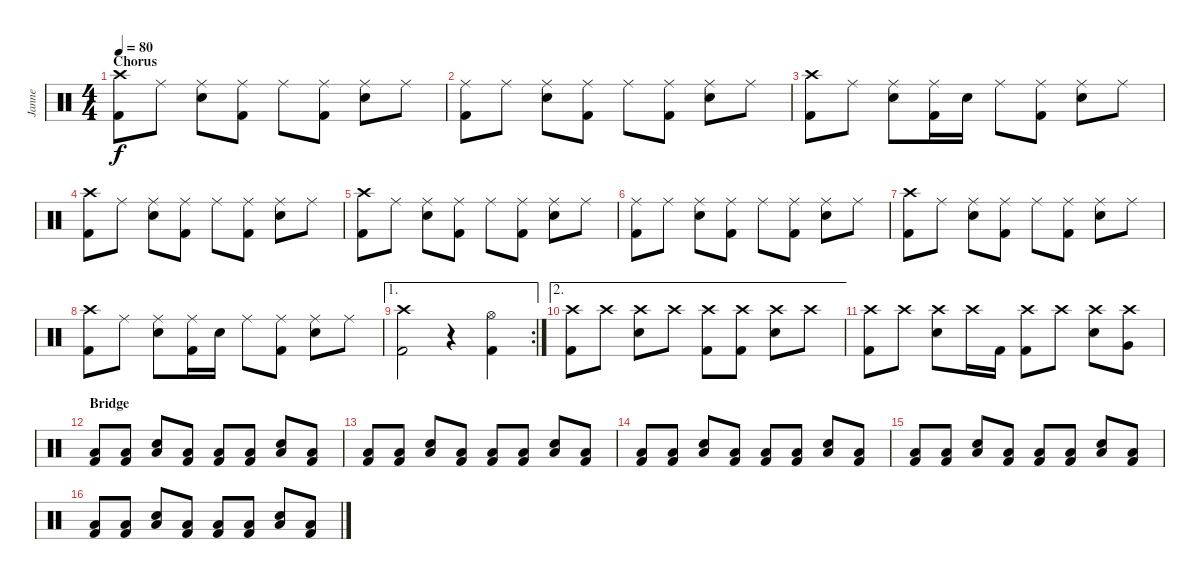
\track ("Janne" "Janne") {instrument percussion}
\staff {score}
\articulation defaults
\ts (4 4)
\section ("" "Chorus")
\tempo 80
\clef neutral
\ks c
("Crash high (hit)" "Kick (hit) 2").8{dy f} "Ride (middle)".8 ("Ride (middle)" "Electric Snare (hit)").8 ("Ride (middle)" "Kick (hit) 2").8 "Ride (middle)".8 ("Ride (middle)" "Kick (hit) 2").8 ("Ride (middle)" "Electric Snare (hit)").8 "Ride (middle)".8 |
("Ride (middle)" "Kick (hit) 2").8 "Ride (middle)".8 ("Ride (middle)" "Electric Snare (hit)").8 ("Ride (middle)" "Kick (hit) 2").8 "Ride (middle)".8 ("Ride (middle)" "Kick (hit) 2").8 ("Ride (middle)" "Electric Snare (hit)").8 "Ride (middle)".8 |
("Crash high (hit)" "Kick (hit) 2").8 "Ride (middle)".8 ("Ride (middle)" "Electric Snare (hit)").8 ("Ride (middle)" "Kick (hit) 2").16 "Electric Snare (hit)".16 "Ride (middle)".8 ("Ride (middle)" "Kick (hit) 2").8 ("Ride (middle)" "Electric Snare (hit)").8 "Ride (middle)".8 |
("Crash high (hit)" "Kick (hit) 2").8 "Ride (middle)".8 ("Ride (middle)" "Electric Snare (hit)").8 ("Ride (middle)" "Kick (hit) 2").8 "Ride (middle)".8 ("Ride (middle)" "Kick (hit) 2").8 ("Ride (middle)" "Electric Snare (hit)").8 "Ride (middle)".8 |
("Crash high (hit)" "Kick (hit) 2").8 "Ride (middle)".8 ("Ride (middle)" "Electric Snare (hit)").8 ("Ride (middle)" "Kick (hit) 2").8 "Ride (middle)".8 ("Ride (middle)" "Kick (hit) 2").8 ("Ride (middle)" "Electric Snare (hit)").8 "Ride (middle)".8 |
("Ride (middle)" "Kick (hit) 2").8 "Ride (middle)".8 ("Ride (middle)" "Electric Snare (hit)").8 ("Ride (middle)" "Kick (hit) 2").8 "Ride (middle)".8 ("Ride (middle)" "Kick (hit) 2").8 ("Ride (middle)" "Electric Snare (hit)").8 "Ride (middle)".8 |
("Crash high (hit)" "Kick (hit) 2").8 "Ride (middle)".8 ("Ride (middle)" "Electric Snare (hit)").8 ("Ride (middle)" "Kick (hit) 2").8 "Ride (middle)".8 ("Ride (middle)" "Kick (hit) 2").8 ("Ride (middle)" "Electric Snare (hit)").8 "Ride (middle)".8 |
("Crash high (hit)" "Kick (hit) 2").8 "Ride (middle)".8 ("Ride (middle)" "Electric Snare (hit)").8 ("Ride (middle)" "Kick (hit) 2").16 "Electric Snare (hit)".16 "Ride (middle)".8 ("Ride (middle)" "Kick (hit) 2").8 ("Ride (middle)" "Electric Snare (hit)").8 "Ride (middle)".8 |
\ae 1
\rc 2
("Crash high (hit)" "Kick (hit) 2").2 r.4 ("Hi-Hat (open)" "Kick (hit) 2").4 |
\ae 2
("Crash high (hit)" "Kick (hit) 2").8 "Crash high (hit)".8 ("Crash high (hit)" "Electric Snare (hit)").8 "Crash high (hit)".8 ("Crash high (hit)" "Kick (hit) 2").8 ("Crash high (hit)" "Kick (hit) 2").8 ("Crash high (hit)" "Electric Snare (hit)").8 "Crash high (hit)".8 |
("Crash high (hit)" "Kick (hit) 2").8 "Crash high (hit)".8 ("Crash high (hit)" "Electric Snare (hit)").8 "Crash high (hit)".16 "Kick (hit) 2".16 ("Crash high (hit)" "Kick (hit) 2").8 "Crash high (hit)".8 ("Crash high (hit)" "Electric Snare (hit)").8 ("Crash high (hit)" "Very Low Tom (hit)").8 |
\section ("" "Bridge")
("Low Floor Tom (hit)" "Kick (hit) 2").8 ("Low Floor Tom (hit)" "Kick (hit) 2").8 ("Low Floor Tom (hit)" "Electric Snare (hit)").8 ("Low Floor Tom (hit)" "Kick (hit) 2").8 ("Low Floor Tom (hit)" "Kick (hit) 2").8 ("Low Floor Tom (hit)" "Kick (hit) 2").8 ("Low Floor Tom (hit)" "Electric Snare (hit)").8 ("Low Floor Tom (hit)" "Kick (hit) 2").8 |
("Low Floor Tom (hit)" "Kick (hit) 2").8 ("Low Floor Tom (hit)" "Kick (hit) 2").8 ("Low Floor Tom (hit)" "Electric Snare (hit)").8 ("Low Floor Tom (hit)" "Kick (hit) 2").8 ("Low Floor Tom (hit)" "Kick (hit) 2").8 ("Low Floor Tom (hit)" "Kick (hit) 2").8 ("Low Floor Tom (hit)" "Electric Snare (hit)").8 ("Low Floor Tom (hit)" "Kick (hit) 2").8 |
("Low Floor Tom (hit)" "Kick (hit) 2").8 ("Low Floor Tom (hit)" "Kick (hit) 2").8 ("Low Floor Tom (hit)" "Electric Snare (hit)").8 ("Low Floor Tom (hit)" "Kick (hit) 2").8 ("Low Floor Tom (hit)" "Kick (hit) 2").8 ("Low Floor Tom (hit)" "Kick (hit) 2").8 ("Low Floor Tom (hit)" "Electric Snare (hit)").8 ("Low Floor Tom (hit)" "Kick (hit) 2").8 |
("Low Floor Tom (hit)" "Kick (hit) 2").8 ("Low Floor Tom (hit)" "Kick (hit) 2").8 ("Low Floor Tom (hit)" "Electric Snare (hit)").8 ("Low Floor Tom (hit)" "Kick (hit) 2").8 ("Low Floor Tom (hit)" "Kick (hit) 2").8 ("Low Floor Tom (hit)" "Kick (hit) 2").8 ("Low Floor Tom (hit)" "Electric Snare (hit)").8 ("Low Floor Tom (hit)" "Kick (hit) 2").8 |
("Low Floor Tom (hit)" "Kick (hit) 2").8 ("Low Floor Tom (hit)" "Kick (hit) 2").8 ("Low Floor Tom (hit)" "Electric Snare (hit)").8 ("Low Floor Tom (hit)" "Kick (hit) 2").8 ("Low Floor Tom (hit)" "Kick (hit) 2").8 ("Low Floor Tom (hit)" "Kick (hit) 2").8 ("Low Floor Tom (hit)" "Electric Snare (hit)").8 ("Low Floor Tom (hit)" "Kick (hit) 2").8
